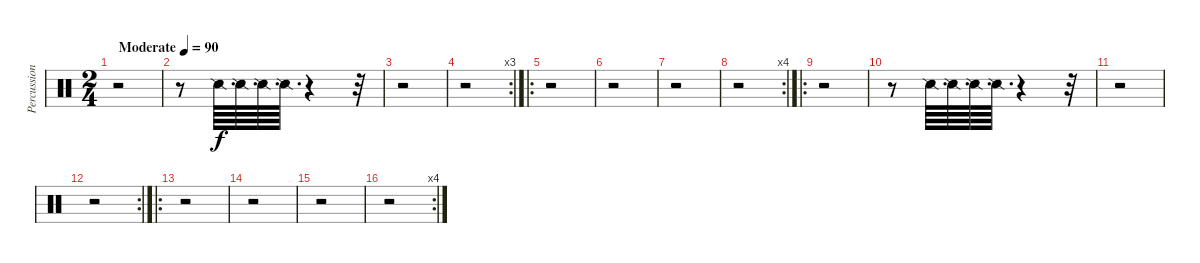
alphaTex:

\track ("Percussions" "Percussion") {instrument percussion}
\staff {score}
\articulation defaults
\ts (2 4)
\tempo (90 "Moderate")
\clef neutral
\ks c
r.2{dy f} |
r.8 "Snare (side stick) 2".64{d} "Snare (side stick) 2".64{d} "Snare (side stick) 2".64{d} "Snare (side stick) 2".64{d} r.4 r.32 |
r.2 |
\rc 3
r.2 |
\ro
r.2 |
r.2 |
r.2 |
\rc 4
r.2 |
\ro
r.2 |
r.8 "Snare (side stick) 2".64{d} "Snare (side stick) 2".64{d} "Snare (side stick) 2".64{d} "Snare (side stick) 2".64{d} r.4 r.32 |
r.2 |
\rc 2
r.2 |
\ro
r.2 |
r.2 |
r.2 |
\rc 4
r.2
